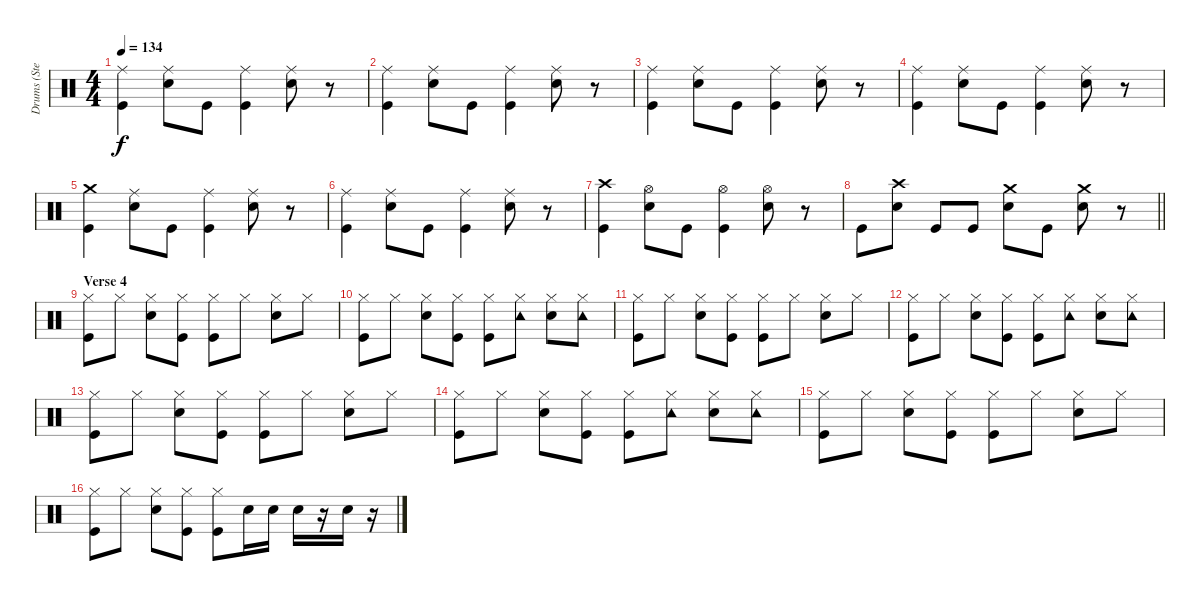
\track ("Drums (Steven Adler)" "Drums (Ste") {instrument percussion}
\staff {score}
\articulation defaults
\ts (4 4)
\tempo 134
\clef neutral
\ks c
("Ride (middle)" "Kick (hit)").4{dy f} ("Ride (middle)" "Snare (hit) 2").8 "Kick (hit)".8 ("Ride (middle)" "Kick (hit)").4 ("Ride (middle)" "Snare (hit) 2").8 r.8 |
("Ride (middle)" "Kick (hit)").4 ("Ride (middle)" "Snare (hit) 2").8 "Kick (hit)".8 ("Ride (middle)" "Kick (hit)").4 ("Ride (middle)" "Snare (hit) 2").8 r.8 |
("Ride (middle)" "Kick (hit)").4 ("Ride (middle)" "Snare (hit) 2").8 "Kick (hit)".8 ("Ride (middle)" "Kick (hit)").4 ("Ride (middle)" "Snare (hit) 2").8 r.8 |
("Ride (middle)" "Kick (hit)").4 ("Ride (middle)" "Snare (hit) 2").8 "Kick (hit)".8 ("Ride (middle)" "Kick (hit)").4 ("Ride (middle)" "Snare (hit) 2").8 r.8 |
("Crash medium (hit)" "Kick (hit)").4 ("Ride (middle)" "Snare (hit) 2").8 "Kick (hit)".8 ("Ride (middle)" "Kick (hit)").4 ("Ride (middle)" "Snare (hit) 2").8 r.8 |
("Ride (middle)" "Kick (hit)").4 ("Ride (middle)" "Snare (hit) 2").8 "Kick (hit)".8 ("Ride (middle)" "Kick (hit)").4 ("Ride (middle)" "Snare (hit) 2").8 r.8 |
("Crash high (hit)" "Kick (hit)").4 ("Hi-Hat (open)" "Snare (hit) 2").8 "Kick (hit)".8 ("Hi-Hat (open)" "Kick (hit)").4 ("Hi-Hat (open)" "Snare (hit) 2").8 r.8 |
\barLineRight lightlight "Kick (hit)".8
("Crash high (hit)" "Snare (hit) 2").8 "Kick (hit)".8 "Kick (hit)".8 ("Crash medium (hit)" "Snare (hit) 2").8 "Kick (hit)".8 ("Crash medium (hit)" "Snare (hit) 2").8 r.8 |
\section ("" "Verse 4")
("Hi-Hat (closed)" "Kick (hit)").8 "Hi-Hat (closed)".8 ("Hi-Hat (closed)" "Snare (hit) 2").8 ("Hi-Hat (closed)" "Kick (hit)").8 ("Hi-Hat (closed)" "Kick (hit)").8 "Hi-Hat (closed)".8 ("Hi-Hat (closed)" "Snare (hit) 2").8 "Hi-Hat (closed)".8 |
("Hi-Hat (closed)" "Kick (hit)").8 "Hi-Hat (closed)".8 ("Hi-Hat (closed)" "Snare (hit) 2").8 ("Hi-Hat (closed)" "Kick (hit)").8 ("Hi-Hat (closed)" "Kick (hit)").8 ("Hi-Hat (closed)" "Tambourine (hit)").8 ("Hi-Hat (closed)" "Snare (hit) 2").8 ("Hi-Hat (closed)" "Tambourine (hit)").8 |
("Hi-Hat (closed)" "Kick (hit)").8 "Hi-Hat (closed)".8 ("Hi-Hat (closed)" "Snare (hit) 2").8 ("Hi-Hat (closed)" "Kick (hit)").8 ("Hi-Hat (closed)" "Kick (hit)").8 "Hi-Hat (closed)".8 ("Hi-Hat (closed)" "Snare (hit) 2").8 "Hi-Hat (closed)".8 |
("Hi-Hat (closed)" "Kick (hit)").8 "Hi-Hat (closed)".8 ("Hi-Hat (closed)" "Snare (hit) 2").8 ("Hi-Hat (closed)" "Kick (hit)").8 ("Hi-Hat (closed)" "Kick (hit)").8 ("Hi-Hat (closed)" "Tambourine (hit)").8 ("Hi-Hat (closed)" "Snare (hit) 2").8 ("Hi-Hat (closed)" "Tambourine (hit)").8 |
("Hi-Hat (closed)" "Kick (hit)").8 "Hi-Hat (closed)".8 ("Hi-Hat (closed)" "Snare (hit) 2").8 ("Hi-Hat (closed)" "Kick (hit)").8 ("Hi-Hat (closed)" "Kick (hit)").8 "Hi-Hat (closed)".8 ("Hi-Hat (closed)" "Snare (hit) 2").8 "Hi-Hat (closed)".8 |
("Hi-Hat (closed)" "Kick (hit)").8 "Hi-Hat (closed)".8 ("Hi-Hat (closed)" "Snare (hit) 2").8 ("Hi-Hat (closed)" "Kick (hit)").8 ("Hi-Hat (closed)" "Kick (hit)").8 ("Hi-Hat (closed)" "Tambourine (hit)").8 ("Hi-Hat (closed)" "Snare (hit) 2").8 ("Hi-Hat (closed)" "Tambourine (hit)").8 |
("Hi-Hat (closed)" "Kick (hit)").8 "Hi-Hat (closed)".8 ("Hi-Hat (closed)" "Snare (hit) 2").8 ("Hi-Hat (closed)" "Kick (hit)").8 ("Hi-Hat (closed)" "Kick (hit)").8 "Hi-Hat (closed)".8 ("Hi-Hat (closed)" "Snare (hit) 2").8 "Hi-Hat (closed)".8 |
("Hi-Hat (closed)" "Kick (hit)").8 "Hi-Hat (closed)".8 ("Hi-Hat (closed)" "Snare (hit) 2").8 ("Hi-Hat (closed)" "Kick (hit)").8 ("Hi-Hat (closed)" "Kick (hit)").8 "Snare (hit) 2".16 "Snare (hit) 2".16 "Snare (hit) 2".16 r.16 "Snare (hit) 2".16 r.16
